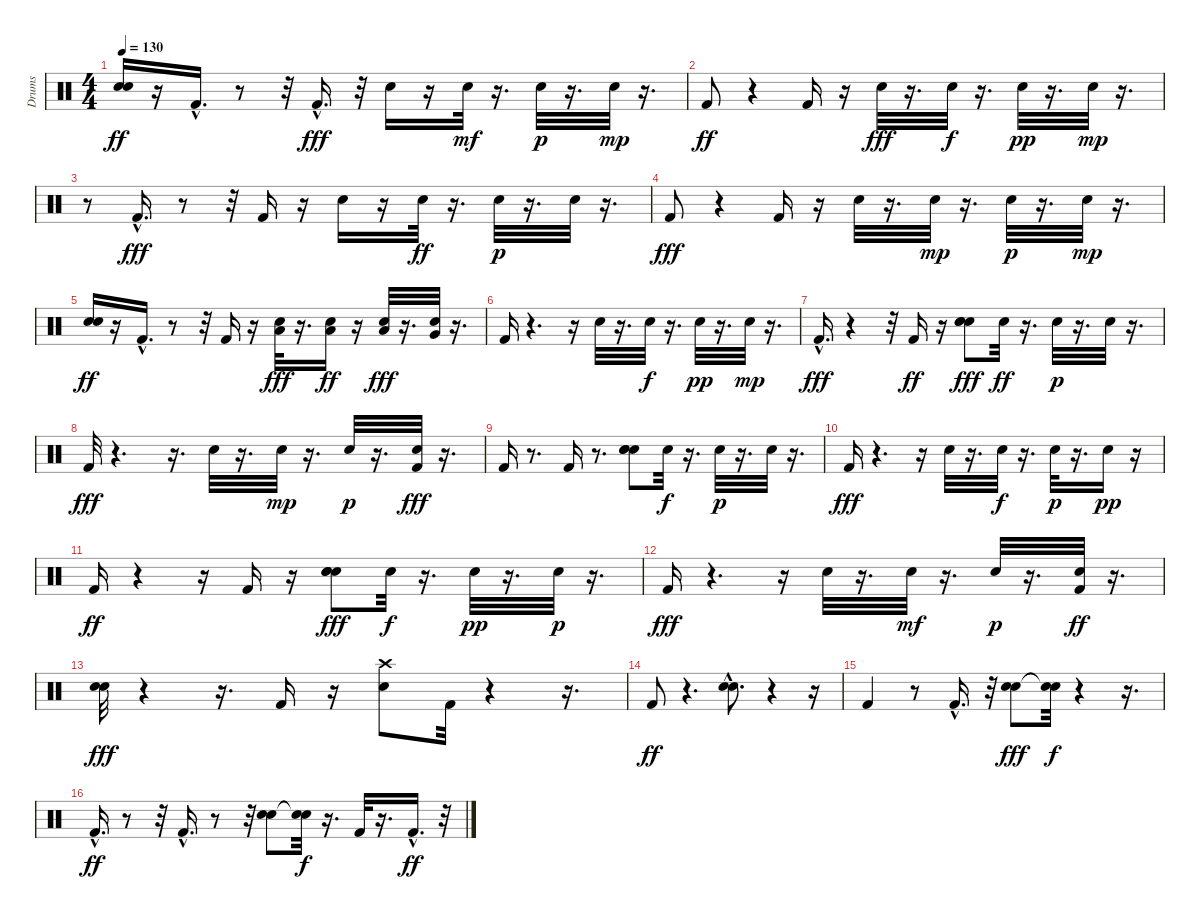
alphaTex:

\track ("Drums" "Drums") {instrument percussion}
\staff {score}
\articulation defaults
\ts (4 4)
\tempo 130
\clef neutral
\ks c
("Hand Clap (hit)" "Snare (hit) 2").16{dy ff} r.16 "Kick (hit) 2"{hac}.16{d} r.8 r.32 "Kick (hit) 2"{hac}.16{d dy fff} r.32 "Hand Clap (hit)".16 r.16 "Hand Clap (hit)".32{dy mf} r.16{d} "Hand Clap (hit)".32{dy p} r.16{d} "Hand Clap (hit)".32{dy mp} r.16{d} |
"Kick (hit) 2".8{dy ff} r.4 "Kick (hit) 2".16 r.16 "Hand Clap (hit)".32{dy fff} r.16{d} "Hand Clap (hit)".32{dy f} r.16{d} "Hand Clap (hit)".32{dy pp} r.16{d} "Hand Clap (hit)".32{dy mp} r.16{d} |
r.8 "Kick (hit) 2"{hac}.16{d dy fff} r.8 r.32 "Kick (hit) 2".16 r.16 "Hand Clap (hit)".16 r.16 "Hand Clap (hit)".32{dy ff} r.16{d} "Hand Clap (hit)".32{dy p} r.16{d} "Hand Clap (hit)".32 r.16{d} |
"Kick (hit) 2".8{dy fff} r.4 "Kick (hit) 2".16 r.16 "Hand Clap (hit)".32 r.16{d} "Hand Clap (hit)".32{dy mp} r.16{d} "Hand Clap (hit)".32{dy p} r.16{d} "Hand Clap (hit)".32{dy mp} r.16{d} |
("Hand Clap (hit)" "Snare (hit) 2").16{dy ff} r.16 "Kick (hit) 2"{hac}.16{d} r.8 r.32 "Kick (hit) 2".16 r.16 ("Hand Clap (hit)" "Low Tom (hit)").32{dy fff} r.16{d} ("Hand Clap (hit)" "Low Tom (hit)").16{dy ff} r.16 ("Hand Clap (hit)" "Low Tom (hit)").32{dy fff} r.16{d} ("Hand Clap (hit)" "Very Low Tom (hit)").32 r.16{d} |
"Kick (hit) 2".16 r.4{d} r.16 "Hand Clap (hit)".32 r.16{d} "Hand Clap (hit)".32{dy f} r.16{d} "Hand Clap (hit)".32{dy pp} r.16{d} "Hand Clap (hit)".32{dy mp} r.16{d} |
"Kick (hit) 2"{hac}.16{d dy fff} r.4 r.32 "Kick (hit) 2".16{dy ff} r.16 ("Hand Clap (hit)" "Hand Clap (hit)" "Snare (hit) 2").8{dy fff} "Hand Clap (hit)".32{dy ff} r.16{d} "Hand Clap (hit)".32{dy p} r.16{d} "Hand Clap (hit)".32 r.16{d} |
"Kick (hit) 2".32{dy fff} r.4{d} r.16{d} "Hand Clap (hit)".32 r.16{d} "Hand Clap (hit)".32{dy mp} r.16{d} "Hand Clap (hit)".32{dy p} r.16{d} ("Hand Clap (hit)" "Kick (hit) 2").32{dy fff} r.16{d} |
"Kick (hit) 2".16 r.8{d} "Kick (hit) 2".16 r.8{d} ("Hand Clap (hit)" "Hand Clap (hit)" "Snare (hit) 2").8 "Hand Clap (hit)".32{dy f} r.16{d} "Hand Clap (hit)".32{dy p} r.16{d} "Hand Clap (hit)".32 r.16{d} |
"Kick (hit) 2".16{dy fff} r.4{d} r.16 "Hand Clap (hit)".32 r.16{d} "Hand Clap (hit)".32{dy f} r.16{d} "Hand Clap (hit)".32{dy p} r.16{d} "Hand Clap (hit)".16{dy pp} r.16 |
"Kick (hit) 2".16{dy ff} r.4 r.16 "Kick (hit) 2".16 r.16 ("Hand Clap (hit)" "Hand Clap (hit)" "Snare (hit) 2").8{dy fff} "Hand Clap (hit)".32{dy f} r.16{d} "Hand Clap (hit)".32{dy pp} r.16{d} "Hand Clap (hit)".32{dy p} r.16{d} |
"Kick (hit) 2".16{dy fff} r.4{d} r.16 "Hand Clap (hit)".32 r.16{d} "Hand Clap (hit)".32{dy mf} r.16{d} "Hand Clap (hit)".32{dy p} r.16{d} ("Hand Clap (hit)" "Kick (hit) 2").32{dy ff} r.16{d} |
("Hand Clap (hit)" "Snare (hit) 2").32{dy fff} r.4 r.16{d} "Kick (hit) 2".16 r.16 ("Crash high (hit)" "Electric Snare (hit)").8 "Kick (hit) 2".32 r.4 r.16{d} |
"Kick (hit) 2".8{dy ff} r.4{d} ("Hand Clap (hit)"{hac} "Snare (hit) 2"{hac}).8{d} r.4 r.16 |
"Kick (hit) 2".4 r.8 "Kick (hit) 2"{hac}.16{d} r.32 ("Snare (hit) 2" "Hand Clap (hit)").8{dy fff} ("Snare (hit)"{t} "Snare (hit)"{t}).32{dy f} r.4 r.16{d} |
"Kick (hit) 2"{hac}.16{d dy ff} r.8 r.32 "Kick (hit) 2"{hac}.16{d} r.8 r.32 ("Hand Clap (hit)" "Snare (hit) 2").8 ("Snare (hit)"{t} "Snare (hit)"{t}).32{dy f} r.16{d} "Kick (hit) 2".32 r.16{d} "Kick (hit) 2"{hac}.16{d dy ff} r.32
